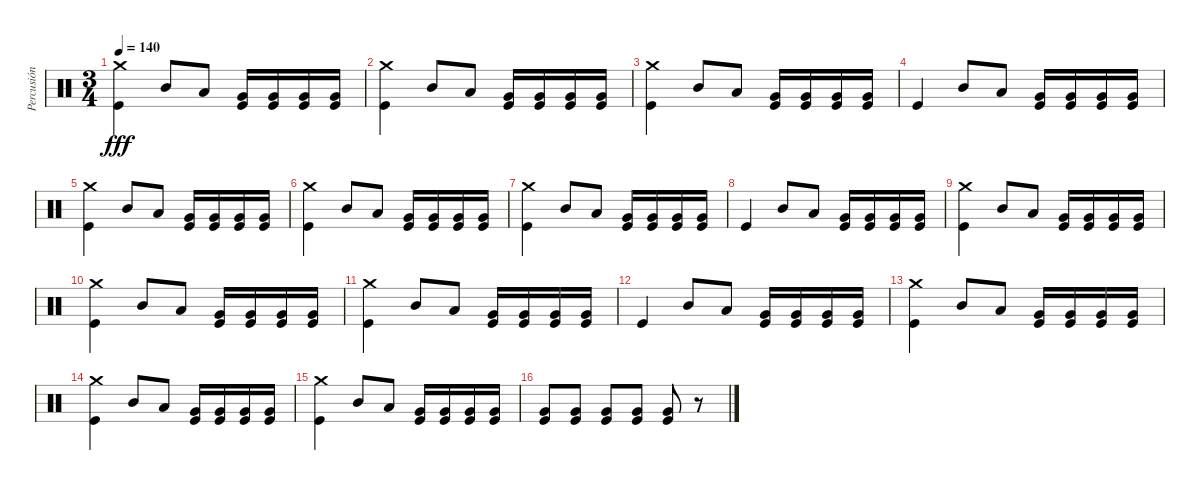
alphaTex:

\track ("Percusión" "Percusión") {instrument percussion}
\staff {score}
\articulation defaults
\ts (3 4)
\tempo 140
\clef neutral
\ks c
("Crash medium (hit)" "Kick (hit)").4{dy fff} "Mid Tom (hit)".8 "Low Tom (hit)".8 ("Very Low Tom (hit)" "Kick (hit)").16 ("Very Low Tom (hit)" "Kick (hit)").16 ("Very Low Tom (hit)" "Kick (hit)").16 ("Very Low Tom (hit)" "Kick (hit)").16 |
("Crash medium (hit)" "Kick (hit)").4 "Mid Tom (hit)".8 "Low Tom (hit)".8 ("Very Low Tom (hit)" "Kick (hit)").16 ("Very Low Tom (hit)" "Kick (hit)").16 ("Very Low Tom (hit)" "Kick (hit)").16 ("Very Low Tom (hit)" "Kick (hit)").16 |
("Crash medium (hit)" "Kick (hit)").4 "Mid Tom (hit)".8 "Low Tom (hit)".8 ("Very Low Tom (hit)" "Kick (hit)").16 ("Very Low Tom (hit)" "Kick (hit)").16 ("Very Low Tom (hit)" "Kick (hit)").16 ("Very Low Tom (hit)" "Kick (hit)").16 |
"Kick (hit)".4 "Mid Tom (hit)".8 "Low Tom (hit)".8 ("Very Low Tom (hit)" "Kick (hit)").16 ("Very Low Tom (hit)" "Kick (hit)").16 ("Very Low Tom (hit)" "Kick (hit)").16 ("Very Low Tom (hit)" "Kick (hit)").16 |
("Crash medium (hit)" "Kick (hit)").4 "Mid Tom (hit)".8 "Low Tom (hit)".8 ("Very Low Tom (hit)" "Kick (hit)").16 ("Very Low Tom (hit)" "Kick (hit)").16 ("Very Low Tom (hit)" "Kick (hit)").16 ("Very Low Tom (hit)" "Kick (hit)").16 |
("Crash medium (hit)" "Kick (hit)").4 "Mid Tom (hit)".8 "Low Tom (hit)".8 ("Very Low Tom (hit)" "Kick (hit)").16 ("Very Low Tom (hit)" "Kick (hit)").16 ("Very Low Tom (hit)" "Kick (hit)").16 ("Very Low Tom (hit)" "Kick (hit)").16 |
("Crash medium (hit)" "Kick (hit)").4 "Mid Tom (hit)".8 "Low Tom (hit)".8 ("Very Low Tom (hit)" "Kick (hit)").16 ("Very Low Tom (hit)" "Kick (hit)").16 ("Very Low Tom (hit)" "Kick (hit)").16 ("Very Low Tom (hit)" "Kick (hit)").16 |
"Kick (hit)".4 "Mid Tom (hit)".8 "Low Tom (hit)".8 ("Very Low Tom (hit)" "Kick (hit)").16 ("Very Low Tom (hit)" "Kick (hit)").16 ("Very Low Tom (hit)" "Kick (hit)").16 ("Very Low Tom (hit)" "Kick (hit)").16 |
("Crash medium (hit)" "Kick (hit)").4 "Mid Tom (hit)".8 "Low Tom (hit)".8 ("Very Low Tom (hit)" "Kick (hit)").16 ("Very Low Tom (hit)" "Kick (hit)").16 ("Very Low Tom (hit)" "Kick (hit)").16 ("Very Low Tom (hit)" "Kick (hit)").16 |
("Crash medium (hit)" "Kick (hit)").4 "Mid Tom (hit)".8 "Low Tom (hit)".8 ("Very Low Tom (hit)" "Kick (hit)").16 ("Very Low Tom (hit)" "Kick (hit)").16 ("Very Low Tom (hit)" "Kick (hit)").16 ("Very Low Tom (hit)" "Kick (hit)").16 |
("Crash medium (hit)" "Kick (hit)").4 "Mid Tom (hit)".8 "Low Tom (hit)".8 ("Very Low Tom (hit)" "Kick (hit)").16 ("Very Low Tom (hit)" "Kick (hit)").16 ("Very Low Tom (hit)" "Kick (hit)").16 ("Very Low Tom (hit)" "Kick (hit)").16 |
"Kick (hit)".4 "Mid Tom (hit)".8 "Low Tom (hit)".8 ("Very Low Tom (hit)" "Kick (hit)").16 ("Very Low Tom (hit)" "Kick (hit)").16 ("Very Low Tom (hit)" "Kick (hit)").16 ("Very Low Tom (hit)" "Kick (hit)").16 |
("Crash medium (hit)" "Kick (hit)").4 "Mid Tom (hit)".8 "Low Tom (hit)".8 ("Very Low Tom (hit)" "Kick (hit)").16 ("Very Low Tom (hit)" "Kick (hit)").16 ("Very Low Tom (hit)" "Kick (hit)").16 ("Very Low Tom (hit)" "Kick (hit)").16 |
("Crash medium (hit)" "Kick (hit)").4 "Mid Tom (hit)".8 "Low Tom (hit)".8 ("Very Low Tom (hit)" "Kick (hit)").16 ("Very Low Tom (hit)" "Kick (hit)").16 ("Very Low Tom (hit)" "Kick (hit)").16 ("Very Low Tom (hit)" "Kick (hit)").16 |
("Crash medium (hit)" "Kick (hit)").4 "Mid Tom (hit)".8 "Low Tom (hit)".8 ("Very Low Tom (hit)" "Kick (hit)").16 ("Very Low Tom (hit)" "Kick (hit)").16 ("Very Low Tom (hit)" "Kick (hit)").16 ("Very Low Tom (hit)" "Kick (hit)").16 |
("Very Low Tom (hit)" "Kick (hit)").8 ("Very Low Tom (hit)" "Kick (hit)").8 ("Very Low Tom (hit)" "Kick (hit)").8 ("Very Low Tom (hit)" "Kick (hit)").8 ("Very Low Tom (hit)" "Kick (hit)").8 r.8
